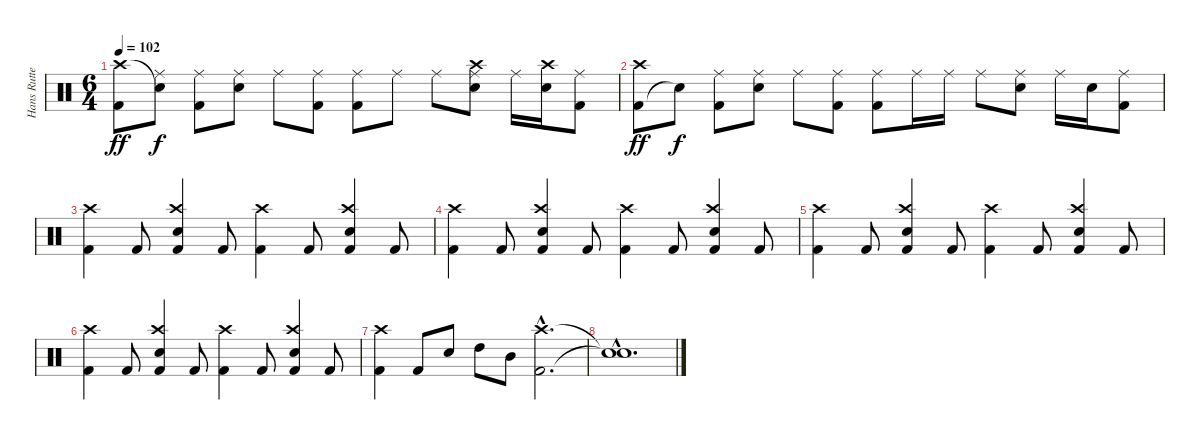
\track ("Hans Rutten" "Hans Rutte") {instrument percussion}
\staff {score}
\articulation defaults
\ts (6 4)
\tempo 102
\clef neutral
\ks c
("Kick (hit) 2" "Crash high (hit)").8{dy ff} ("Ride (middle)" "Snare (hit)"{t}).8{dy f} ("Kick (hit) 2" "Ride (middle)").8 ("Ride (middle)" "Snare (hit) 2").8 "Ride (middle)".8 ("Kick (hit) 2" "Ride (middle)").8 ("Kick (hit) 2" "Ride (middle)").8 "Ride (middle)".8 "Ride (middle)".8 ("Ride (middle)" "Crash high (hit)" "Snare (hit) 2").8 "Ride (middle)".16 ("Crash high (hit)" "Snare (hit) 2").16 ("Kick (hit) 2" "Ride (middle)").8 |
("Kick (hit) 2" "Crash high (hit)").8{dy ff} "Snare (hit)"{t}.8{dy f} ("Kick (hit) 2" "Ride (middle)").8 ("Ride (middle)" "Snare (hit) 2").8 "Ride (middle)".8 ("Kick (hit) 2" "Ride (middle)").8 ("Kick (hit) 2" "Ride (middle)").8 "Ride (middle)".16 "Ride (middle)".16 "Ride (middle)".8 ("Ride (middle)" "Snare (hit) 2").8 "Ride (middle)".16 "Snare (hit) 2".16 ("Kick (hit) 2" "Ride (middle)").8 |
("Kick (hit) 2" "Crash high (hit)").4 "Kick (hit) 2".8 ("Kick (hit) 2" "Crash high (hit)" "Snare (hit) 2").4 "Kick (hit) 2".8 ("Kick (hit) 2" "Crash high (hit)").4 "Kick (hit) 2".8 ("Kick (hit) 2" "Crash high (hit)" "Snare (hit) 2").4 "Kick (hit) 2".8 |
("Kick (hit) 2" "Crash high (hit)").4 "Kick (hit) 2".8 ("Kick (hit) 2" "Crash high (hit)" "Snare (hit) 2").4 "Kick (hit) 2".8 ("Kick (hit) 2" "Crash high (hit)").4 "Kick (hit) 2".8 ("Kick (hit) 2" "Crash high (hit)" "Snare (hit) 2").4 "Kick (hit) 2".8 |
("Kick (hit) 2" "Crash high (hit)").4 "Kick (hit) 2".8 ("Kick (hit) 2" "Crash high (hit)" "Snare (hit) 2").4 "Kick (hit) 2".8 ("Kick (hit) 2" "Crash high (hit)").4 "Kick (hit) 2".8 ("Kick (hit) 2" "Crash high (hit)" "Snare (hit) 2").4 "Kick (hit) 2".8 |
("Kick (hit) 2" "Crash high (hit)").4 "Kick (hit) 2".8 ("Kick (hit) 2" "Crash high (hit)" "Snare (hit) 2").4 "Kick (hit) 2".8 ("Kick (hit) 2" "Crash high (hit)").4 "Kick (hit) 2".8 ("Kick (hit) 2" "Crash high (hit)" "Snare (hit) 2").4 "Kick (hit) 2".8 |
("Kick (hit) 2" "Crash high (hit)").4 "Kick (hit) 2".8 "Snare (hit) 2".8 "High Tom (hit)".8 "Mid Tom (hit)".8 ("Kick (hit) 2"{hac} "Crash high (hit)"{hac}).2{d} |
("Snare (hit)"{hac t} "Snare (hit)"{hac t}).1{d}
